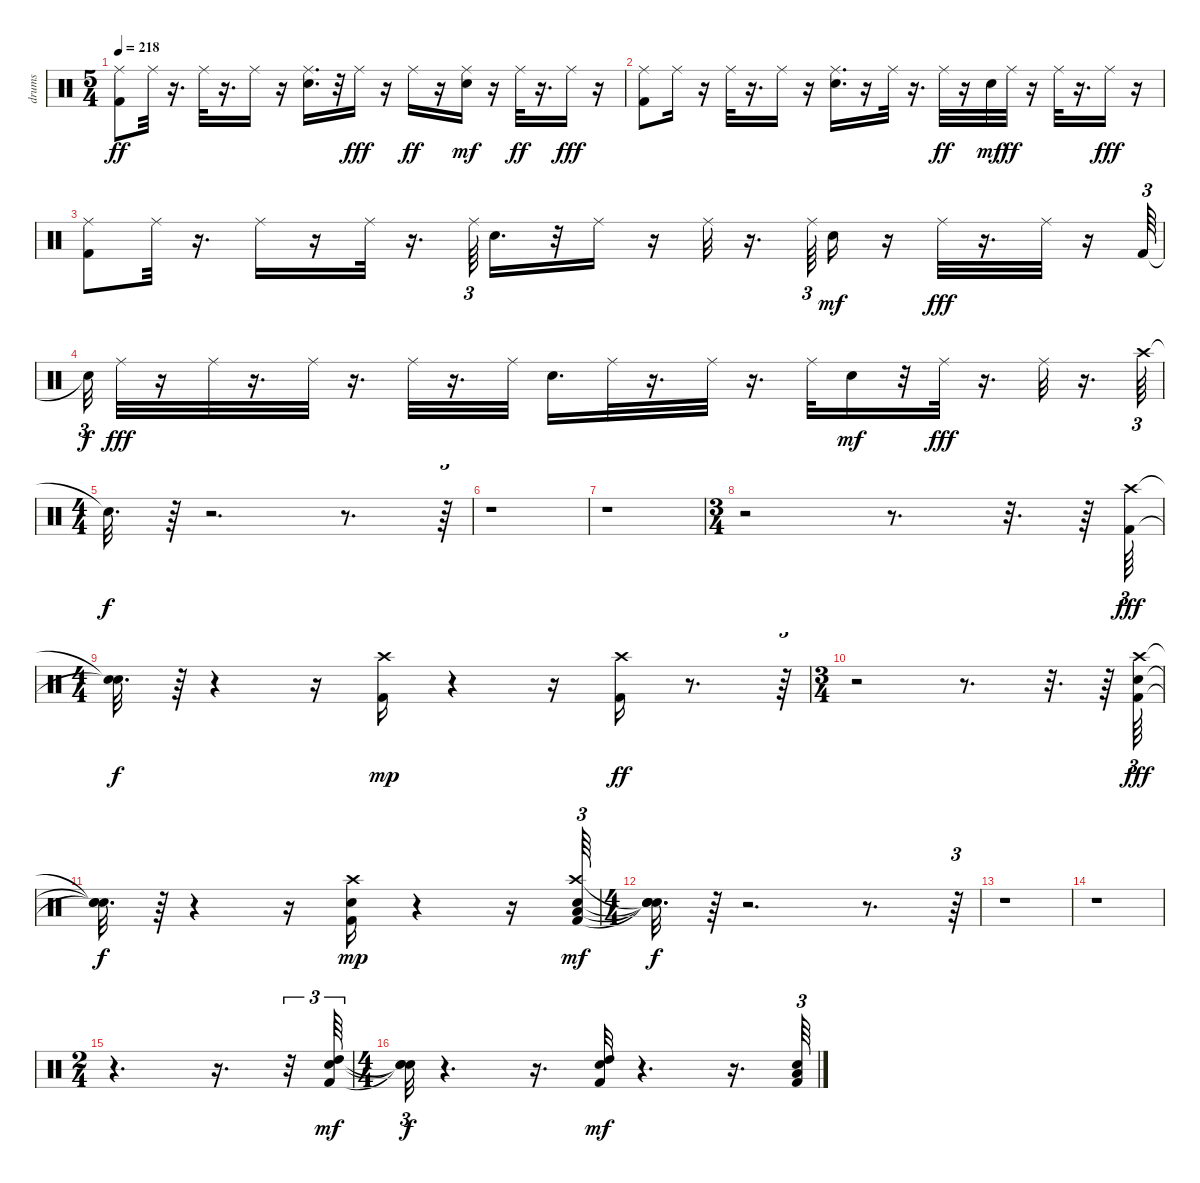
\track ("drums               " "drums     ") {instrument percussion}
\staff {score}
\articulation defaults
\ts (5 4)
\tempo 218
\clef neutral
\ks c
("Kick (hit) 2" "Ride (middle)").8{dy ff} "Ride (middle)".32 r.16{d} "Ride (middle)".32 r.16{d} "Ride (middle)".16 r.16 ("Snare (hit) 2" "Ride (middle)").16{d} r.32 "Ride (middle)".16{dy fff} r.16 "Ride (middle)".16{dy ff} r.16 ("Ride (middle)" "Snare (hit) 2").16{dy mf} r.16 "Ride (middle)".32{dy ff} r.16{d} "Ride (middle)".16{dy fff} r.16 |
("Kick (hit) 2" "Ride (middle)").8 "Ride (middle)".16 r.16 "Ride (middle)".32 r.16{d} "Ride (middle)".16 r.16 ("Snare (hit) 2" "Ride (middle)").16{d} r.16 "Ride (middle)".32 r.16{d} "Ride (middle)".32{dy ff} r.16 "Snare (hit) 2".32{dy mf} "Ride (middle)".32{dy ff} r.16 "Ride (middle)".32 r.16{d} "Ride (middle)".16{dy fff} r.16 |
("Kick (hit) 2" "Ride (middle)").8 "Ride (middle)".32 r.16{d} "Ride (middle)".16 r.16 "Ride (middle)".32 r.16{d} "Ride (middle)".64{tu (3 2)} "Snare (hit) 2".16{d} r.32 "Ride (middle)".16 r.16 "Ride (middle)".32 r.16{d} "Ride (middle)".64{tu (3 2)} "Snare (hit) 2".16{dy mf} r.16 "Ride (middle)".32{dy fff} r.16{d} "Ride (middle)".32 r.16 "Kick (hit) 2".64{tu (3 2)} |
"Snare (hit)"{t}.32{tu (3 2) dy f} "Ride (middle)".32{dy fff} r.16 "Ride (middle)".32 r.16{d} "Ride (middle)".32 r.16{d} "Ride (middle)".32 r.16{d} "Ride (middle)".32 "Snare (hit) 2".16{d} "Ride (middle)".32 r.16{d} "Ride (middle)".32 r.16{d} "Ride (middle)".32 "Snare (hit) 2".16{dy mf} r.32 "Ride (middle)".32{dy fff} r.16{d} "Ride (middle)".32 r.16{d} "Crash high (hit)".64{tu (3 2)} |
\ts (4 4)
"Snare (hit)"{t}.32{d dy f} r.64 r.2{d} r.8{d} r.64{tu (3 2)} |
r.1 |
r.1 |
\ts (3 4)
r.2 r.8{d} r.32{d} r.64 ("Kick (hit) 2" "Crash high (hit)").64{tu (3 2) dy fff} |
\ts (4 4)
("Snare (hit)"{t} "Snare (hit)"{t}).32{d dy f} r.64 r.4 r.16 ("Kick (hit) 2" "Crash high (hit)").16{dy mp} r.4 r.16 ("Kick (hit) 2" "Crash high (hit)").16{dy ff} r.8{d} r.64{tu (3 2)} |
\ts (3 4)
r.2 r.8{d} r.32{d} r.64 ("Snare (hit) 2" "Kick (hit) 2" "Crash high (hit)").64{tu (3 2) dy fff} |
("Snare (hit)"{t} "Snare (hit)"{t} "Snare (hit)"{t}).32{d dy f} r.64 r.4 r.16 ("Snare (hit) 2" "Kick (hit) 2" "Crash high (hit)").16{dy mp} r.4 r.16 ("Snare (hit) 2" "Kick (hit) 2" "Low Floor Tom (hit)" "Crash high (hit)").64{tu (3 2) dy mf} |
\ts (4 4)
("Snare (hit)"{t} "Snare (hit)"{t} "Snare (hit)"{t} "Snare (hit)"{t}).32{d dy f} r.64 r.2{d} r.8{d} r.64{tu (3 2)} |
r.1 |
r.1 |
\ts (2 4)
r.4{d} r.16{d} r.32{tu (3 2)} ("Kick (hit) 2" "Snare (hit) 2" "High Tom (hit)").64{tu (3 2) dy mf} |
\ts (4 4)
("Snare (hit)"{t} "Snare (hit)"{t} "Snare (hit)"{t}).32{tu (3 2) dy f} r.4{d} r.16{d} ("Kick (hit) 2" "Snare (hit) 2" "High Tom (hit)").32{dy mf} r.4{d} r.16{d} ("Kick (hit) 2" "Snare (hit) 2" "Low Tom (hit)").64{tu (3 2)}
